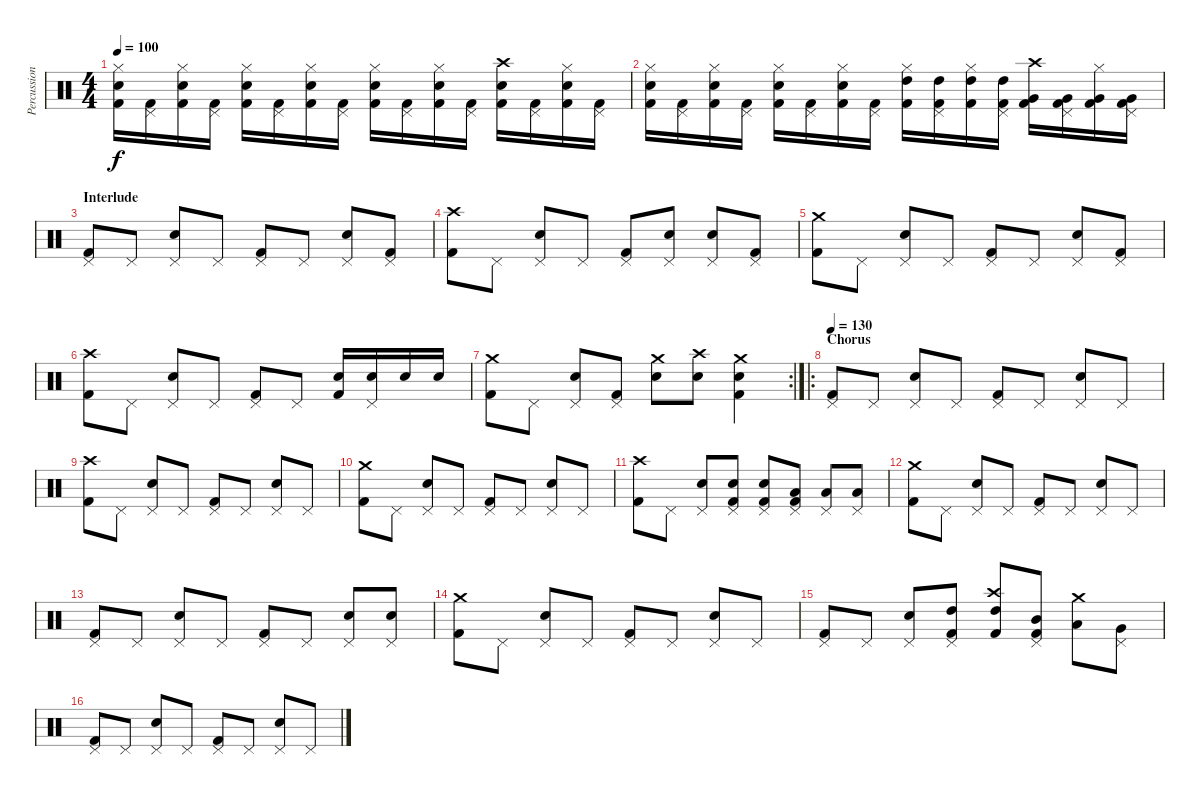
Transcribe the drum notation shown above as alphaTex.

\track ("Percussion" "Percussion") {instrument percussion}
\staff {score}
\articulation defaults
\ts (4 4)
\tempo 100
\clef neutral
\ks c
("Hi-Hat (closed)" "Snare (hit) 2" "Kick (hit) 2").16{dy f} ("Pedal Hi-Hat (hit)" "Kick (hit) 2").16 ("Hi-Hat (closed)" "Snare (hit) 2" "Kick (hit) 2").16 ("Pedal Hi-Hat (hit)" "Kick (hit) 2").16 ("Hi-Hat (closed)" "Snare (hit) 2" "Kick (hit) 2").16 ("Pedal Hi-Hat (hit)" "Kick (hit) 2").16 ("Hi-Hat (closed)" "Snare (hit) 2" "Kick (hit) 2").16 ("Pedal Hi-Hat (hit)" "Kick (hit) 2").16 ("Hi-Hat (closed)" "Snare (hit) 2" "Kick (hit) 2").16 ("Pedal Hi-Hat (hit)" "Kick (hit) 2").16 ("Hi-Hat (closed)" "Snare (hit) 2" "Kick (hit) 2").16 ("Pedal Hi-Hat (hit)" "Kick (hit) 2").16 ("Crash high (hit)" "Snare (hit) 2" "Kick (hit) 2").16 ("Pedal Hi-Hat (hit)" "Kick (hit) 2").16 ("Hi-Hat (closed)" "Snare (hit) 2" "Kick (hit) 2").16 ("Pedal Hi-Hat (hit)" "Kick (hit) 2").16 |
("Hi-Hat (closed)" "Snare (hit) 2" "Kick (hit) 2").16 ("Pedal Hi-Hat (hit)" "Kick (hit) 2").16 ("Hi-Hat (closed)" "Snare (hit) 2" "Kick (hit) 2").16 ("Pedal Hi-Hat (hit)" "Kick (hit) 2").16 ("Hi-Hat (closed)" "Snare (hit) 2" "Kick (hit) 2").16 ("Pedal Hi-Hat (hit)" "Kick (hit) 2").16 ("Hi-Hat (closed)" "Snare (hit) 2" "Kick (hit) 2").16 ("Pedal Hi-Hat (hit)" "Kick (hit) 2").16 ("Hi-Hat (closed)" "High Tom (hit)" "Kick (hit) 2").16 ("Pedal Hi-Hat (hit)" "High Tom (hit)" "Kick (hit) 2").16 ("Hi-Hat (closed)" "High Tom (hit)" "Kick (hit) 2").16 ("Pedal Hi-Hat (hit)" "High Tom (hit)" "Kick (hit) 2").16 ("Crash high (hit)" "Very Low Tom (hit)" "Kick (hit) 2").16 ("Pedal Hi-Hat (hit)" "Very Low Tom (hit)" "Kick (hit) 2").16 ("Hi-Hat (closed)" "Very Low Tom (hit)" "Kick (hit) 2").16 ("Pedal Hi-Hat (hit)" "Very Low Tom (hit)" "Kick (hit) 2").16 |
\section ("" "Interlude")
("Pedal Hi-Hat (hit)" "Kick (hit) 2").8 "Pedal Hi-Hat (hit)".8 ("Pedal Hi-Hat (hit)" "Snare (hit) 2").8 "Pedal Hi-Hat (hit)".8 ("Pedal Hi-Hat (hit)" "Kick (hit) 2").8 "Pedal Hi-Hat (hit)".8 ("Pedal Hi-Hat (hit)" "Snare (hit) 2").8 ("Pedal Hi-Hat (hit)" "Kick (hit) 2").8 |
("Crash high (hit)" "Kick (hit) 2").8 "Pedal Hi-Hat (hit)".8 ("Pedal Hi-Hat (hit)" "Snare (hit) 2").8 "Pedal Hi-Hat (hit)".8 ("Pedal Hi-Hat (hit)" "Kick (hit) 2").8 ("Pedal Hi-Hat (hit)" "Snare (hit) 2").8 ("Pedal Hi-Hat (hit)" "Snare (hit) 2").8 ("Pedal Hi-Hat (hit)" "Kick (hit) 2").8 |
("Crash medium (hit)" "Kick (hit) 2").8 "Pedal Hi-Hat (hit)".8 ("Pedal Hi-Hat (hit)" "Snare (hit) 2").8 "Pedal Hi-Hat (hit)".8 ("Pedal Hi-Hat (hit)" "Kick (hit) 2").8 "Pedal Hi-Hat (hit)".8 ("Pedal Hi-Hat (hit)" "Snare (hit) 2").8 ("Pedal Hi-Hat (hit)" "Kick (hit) 2").8 |
("Crash high (hit)" "Kick (hit) 2").8 "Pedal Hi-Hat (hit)".8 ("Pedal Hi-Hat (hit)" "Snare (hit) 2").8 "Pedal Hi-Hat (hit)".8 ("Pedal Hi-Hat (hit)" "Kick (hit) 2").8 "Pedal Hi-Hat (hit)".8 ("Snare (hit) 2" "Kick (hit) 2").16 ("Pedal Hi-Hat (hit)" "Snare (hit) 2").16 "Snare (hit) 2".16 "Snare (hit) 2".16 |
\rc 2
("Crash medium (hit)" "Kick (hit) 2").8 "Pedal Hi-Hat (hit)".8 ("Pedal Hi-Hat (hit)" "Snare (hit) 2").8 ("Pedal Hi-Hat (hit)" "Kick (hit) 2").8 ("Crash medium (hit)" "Snare (hit) 2").8 ("Crash high (hit)" "Snare (hit) 2").8 ("Crash medium (hit)" "Snare (hit) 2" "Kick (hit) 2").4 |
\ro
\section ("" "Chorus")
\tempo 130
("Pedal Hi-Hat (hit)" "Kick (hit) 2").8 "Pedal Hi-Hat (hit)".8 ("Pedal Hi-Hat (hit)" "Snare (hit) 2").8 "Pedal Hi-Hat (hit)".8 ("Pedal Hi-Hat (hit)" "Kick (hit) 2").8 "Pedal Hi-Hat (hit)".8 ("Pedal Hi-Hat (hit)" "Snare (hit) 2").8 "Pedal Hi-Hat (hit)".8 |
("Crash high (hit)" "Kick (hit) 2").8 "Pedal Hi-Hat (hit)".8 ("Pedal Hi-Hat (hit)" "Snare (hit) 2").8 "Pedal Hi-Hat (hit)".8 ("Pedal Hi-Hat (hit)" "Kick (hit) 2").8 "Pedal Hi-Hat (hit)".8 ("Pedal Hi-Hat (hit)" "Snare (hit) 2").8 "Pedal Hi-Hat (hit)".8 |
("Crash medium (hit)" "Kick (hit) 2").8 "Pedal Hi-Hat (hit)".8 ("Pedal Hi-Hat (hit)" "Snare (hit) 2").8 "Pedal Hi-Hat (hit)".8 ("Pedal Hi-Hat (hit)" "Kick (hit) 2").8 "Pedal Hi-Hat (hit)".8 ("Pedal Hi-Hat (hit)" "Snare (hit) 2").8 "Pedal Hi-Hat (hit)".8 |
("Crash high (hit)" "Kick (hit) 2").8 "Pedal Hi-Hat (hit)".8 ("Pedal Hi-Hat (hit)" "Snare (hit) 2").8 ("Pedal Hi-Hat (hit)" "Snare (hit) 2" "Kick (hit) 2").8 ("Pedal Hi-Hat (hit)" "Snare (hit) 2" "Kick (hit) 2").8 ("Pedal Hi-Hat (hit)" "Low Tom (hit)" "Kick (hit) 2").8 ("Pedal Hi-Hat (hit)" "Low Tom (hit)").8 ("Pedal Hi-Hat (hit)" "Low Tom (hit)").8 |
("Crash medium (hit)" "Kick (hit) 2").8 "Pedal Hi-Hat (hit)".8 ("Pedal Hi-Hat (hit)" "Snare (hit) 2").8 "Pedal Hi-Hat (hit)".8 ("Pedal Hi-Hat (hit)" "Kick (hit) 2").8 "Pedal Hi-Hat (hit)".8 ("Pedal Hi-Hat (hit)" "Snare (hit) 2").8 "Pedal Hi-Hat (hit)".8 |
("Pedal Hi-Hat (hit)" "Kick (hit) 2").8 "Pedal Hi-Hat (hit)".8 ("Pedal Hi-Hat (hit)" "Snare (hit) 2").8 "Pedal Hi-Hat (hit)".8 ("Pedal Hi-Hat (hit)" "Kick (hit) 2").8 "Pedal Hi-Hat (hit)".8 ("Pedal Hi-Hat (hit)" "Snare (hit) 2").8 ("Pedal Hi-Hat (hit)" "Snare (hit) 2").8 |
("Crash medium (hit)" "Kick (hit) 2").8 "Pedal Hi-Hat (hit)".8 ("Pedal Hi-Hat (hit)" "Snare (hit) 2").8 "Pedal Hi-Hat (hit)".8 ("Pedal Hi-Hat (hit)" "Kick (hit) 2").8 "Pedal Hi-Hat (hit)".8 ("Pedal Hi-Hat (hit)" "Snare (hit) 2").8 "Pedal Hi-Hat (hit)".8 |
("Pedal Hi-Hat (hit)" "Kick (hit) 2").8 "Pedal Hi-Hat (hit)".8 ("Pedal Hi-Hat (hit)" "Snare (hit) 2").8 ("Pedal Hi-Hat (hit)" "High Tom (hit)" "Kick (hit) 2").8 ("Crash high (hit)" "High Tom (hit)" "Kick (hit) 2").8 ("Pedal Hi-Hat (hit)" "Mid Tom (hit)" "Kick (hit) 2").8 ("Crash medium (hit)" "Low Tom (hit)").8 ("Pedal Hi-Hat (hit)" "Very Low Tom (hit)").8 |
("Pedal Hi-Hat (hit)" "Kick (hit) 2").8 "Pedal Hi-Hat (hit)".8 ("Pedal Hi-Hat (hit)" "Snare (hit) 2").8 "Pedal Hi-Hat (hit)".8 ("Pedal Hi-Hat (hit)" "Kick (hit) 2").8 "Pedal Hi-Hat (hit)".8 ("Pedal Hi-Hat (hit)" "Snare (hit) 2").8 "Pedal Hi-Hat (hit)".8
